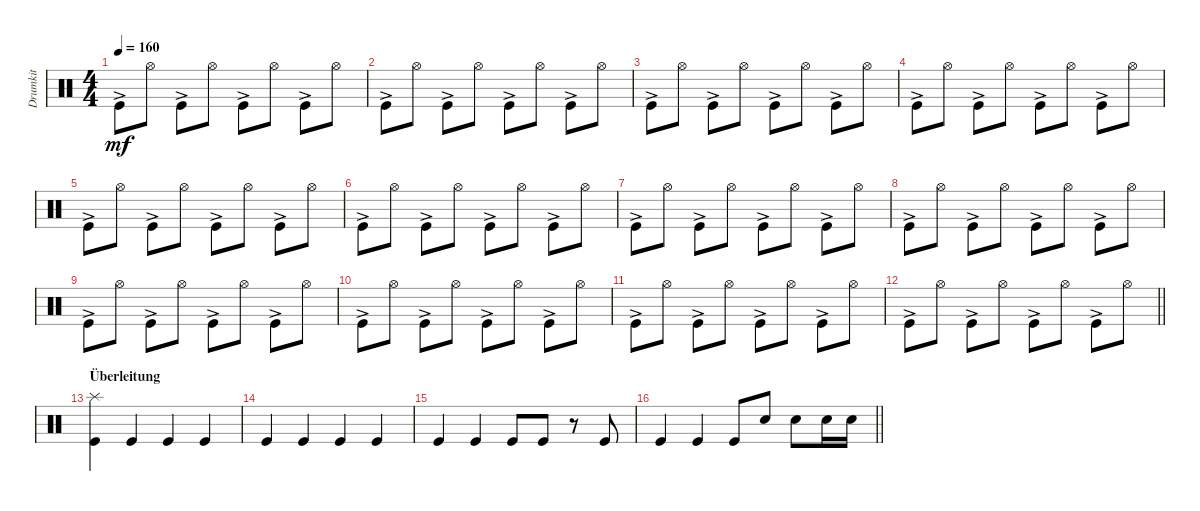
\track ("Drumkit" "Drumkit") {instrument percussion}
\staff {score}
\articulation defaults
\ts (4 4)
\tempo 160
\clef neutral
\ks c "Kick (hit)"{ac}.8{dy mf} "Hi-Hat (open)".8 "Kick (hit)"{ac}.8 "Hi-Hat (open)".8 "Kick (hit)"{ac}.8 "Hi-Hat (open)".8 "Kick (hit)"{ac}.8 "Hi-Hat (open)".8
|
"Kick (hit)"{ac}.8 "Hi-Hat (open)".8 "Kick (hit)"{ac}.8 "Hi-Hat (open)".8 "Kick (hit)"{ac}.8 "Hi-Hat (open)".8 "Kick (hit)"{ac}.8 "Hi-Hat (open)".8 |
"Kick (hit)"{ac}.8 "Hi-Hat (open)".8 "Kick (hit)"{ac}.8 "Hi-Hat (open)".8 "Kick (hit)"{ac}.8 "Hi-Hat (open)".8 "Kick (hit)"{ac}.8 "Hi-Hat (open)".8 |
"Kick (hit)"{ac}.8 "Hi-Hat (open)".8 "Kick (hit)"{ac}.8 "Hi-Hat (open)".8 "Kick (hit)"{ac}.8 "Hi-Hat (open)".8 "Kick (hit)"{ac}.8 "Hi-Hat (open)".8 |
"Kick (hit)"{ac}.8 "Hi-Hat (open)".8 "Kick (hit)"{ac}.8 "Hi-Hat (open)".8 "Kick (hit)"{ac}.8 "Hi-Hat (open)".8 "Kick (hit)"{ac}.8 "Hi-Hat (open)".8 |
"Kick (hit)"{ac}.8 "Hi-Hat (open)".8 "Kick (hit)"{ac}.8 "Hi-Hat (open)".8 "Kick (hit)"{ac}.8 "Hi-Hat (open)".8 "Kick (hit)"{ac}.8 "Hi-Hat (open)".8 |
"Kick (hit)"{ac}.8 "Hi-Hat (open)".8 "Kick (hit)"{ac}.8 "Hi-Hat (open)".8 "Kick (hit)"{ac}.8 "Hi-Hat (open)".8 "Kick (hit)"{ac}.8 "Hi-Hat (open)".8 |
"Kick (hit)"{ac}.8 "Hi-Hat (open)".8 "Kick (hit)"{ac}.8 "Hi-Hat (open)".8 "Kick (hit)"{ac}.8 "Hi-Hat (open)".8 "Kick (hit)"{ac}.8 "Hi-Hat (open)".8 |
"Kick (hit)"{ac}.8 "Hi-Hat (open)".8 "Kick (hit)"{ac}.8 "Hi-Hat (open)".8 "Kick (hit)"{ac}.8 "Hi-Hat (open)".8 "Kick (hit)"{ac}.8 "Hi-Hat (open)".8 |
"Kick (hit)"{ac}.8 "Hi-Hat (open)".8 "Kick (hit)"{ac}.8 "Hi-Hat (open)".8 "Kick (hit)"{ac}.8 "Hi-Hat (open)".8 "Kick (hit)"{ac}.8 "Hi-Hat (open)".8 |
"Kick (hit)"{ac}.8 "Hi-Hat (open)".8 "Kick (hit)"{ac}.8 "Hi-Hat (open)".8 "Kick (hit)"{ac}.8 "Hi-Hat (open)".8 "Kick (hit)"{ac}.8 "Hi-Hat (open)".8 |
\barLineRight lightlight "Kick (hit)"{ac}.8 "Hi-Hat (open)".8 "Kick (hit)"{ac}.8 "Hi-Hat (open)".8 "Kick (hit)"{ac}.8 "Hi-Hat (open)".8 "Kick (hit)"{ac}.8 "Hi-Hat (open)".8
|
\section ("" "Überleitung")
("Kick (hit)" "Splash (hit)").4 "Kick (hit)".4 "Kick (hit)".4 "Kick (hit)".4 |
"Kick (hit)".4 "Kick (hit)".4 "Kick (hit)".4 "Kick (hit)".4 |
"Kick (hit)".4 "Kick (hit)".4 "Kick (hit)".8 "Kick (hit)".8 r.8 "Kick (hit)".8 |
\barLineRight lightlight "Kick (hit)".4 "Kick (hit)".4 "Kick (hit)".8 "Snare (hit) 2".8 "Snare (hit) 2".8 "Snare (hit) 2".16 "Snare (hit) 2".16
